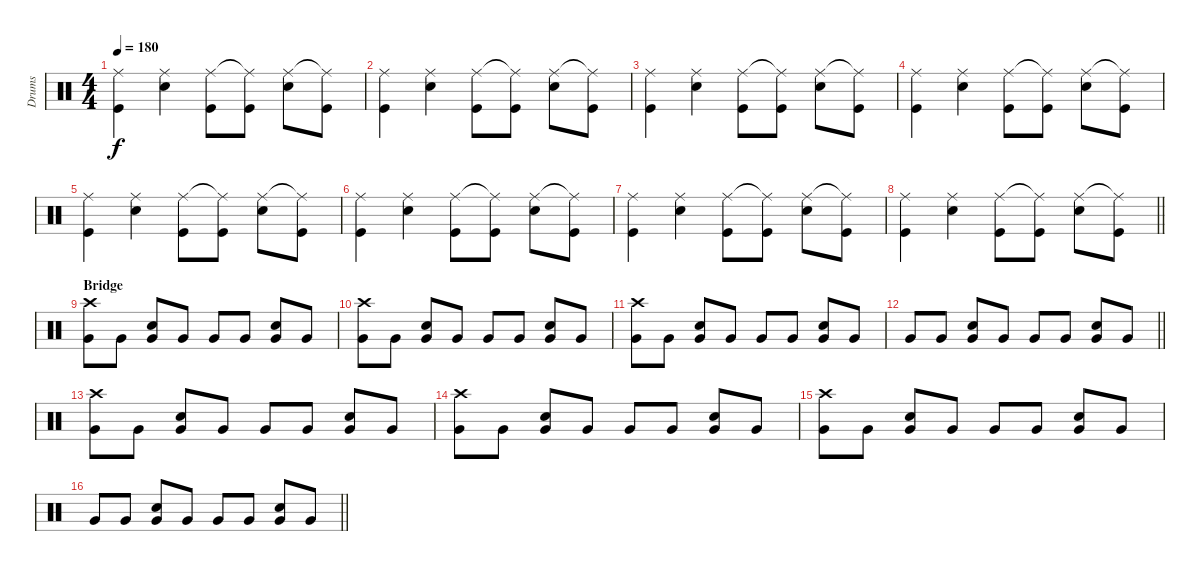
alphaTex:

\track ("Drums" "Drums") {instrument percussion}
\staff {score}
\articulation defaults
\ts (4 4)
\tempo 180
\clef neutral
\ks c
("Kick (hit)" "Ride (middle)").4{dy f} ("Snare (hit) 2" "Ride (middle)").4 ("Kick (hit)" "Ride (middle)").8 ("Kick (hit)" "Ride (middle)"{t}).8 ("Snare (hit) 2" "Ride (middle)").8 ("Kick (hit)" "Ride (middle)"{t}).8 |
("Kick (hit)" "Ride (middle)").4 ("Snare (hit) 2" "Ride (middle)").4 ("Kick (hit)" "Ride (middle)").8 ("Kick (hit)" "Ride (middle)"{t}).8 ("Snare (hit) 2" "Ride (middle)").8 ("Kick (hit)" "Ride (middle)"{t}).8 |
("Kick (hit)" "Ride (middle)").4 ("Snare (hit) 2" "Ride (middle)").4 ("Kick (hit)" "Ride (middle)").8 ("Kick (hit)" "Ride (middle)"{t}).8 ("Snare (hit) 2" "Ride (middle)").8 ("Kick (hit)" "Ride (middle)"{t}).8 |
("Kick (hit)" "Ride (middle)").4 ("Snare (hit) 2" "Ride (middle)").4 ("Kick (hit)" "Ride (middle)").8 ("Kick (hit)" "Ride (middle)"{t}).8 ("Snare (hit) 2" "Ride (middle)").8 ("Kick (hit)" "Ride (middle)"{t}).8 |
("Kick (hit)" "Ride (middle)").4 ("Snare (hit) 2" "Ride (middle)").4 ("Kick (hit)" "Ride (middle)").8 ("Kick (hit)" "Ride (middle)"{t}).8 ("Snare (hit) 2" "Ride (middle)").8 ("Kick (hit)" "Ride (middle)"{t}).8 |
("Kick (hit)" "Ride (middle)").4 ("Snare (hit) 2" "Ride (middle)").4 ("Kick (hit)" "Ride (middle)").8 ("Kick (hit)" "Ride (middle)"{t}).8 ("Snare (hit) 2" "Ride (middle)").8 ("Kick (hit)" "Ride (middle)"{t}).8 |
("Kick (hit)" "Ride (middle)").4 ("Snare (hit) 2" "Ride (middle)").4 ("Kick (hit)" "Ride (middle)").8 ("Kick (hit)" "Ride (middle)"{t}).8 ("Snare (hit) 2" "Ride (middle)").8 ("Kick (hit)" "Ride (middle)"{t}).8 |
\barLineRight lightlight
("Kick (hit)" "Ride (middle)").4 ("Snare (hit) 2" "Ride (middle)").4 ("Kick (hit)" "Ride (middle)").8 ("Kick (hit)" "Ride (middle)"{t}).8 ("Snare (hit) 2" "Ride (middle)").8 ("Kick (hit)" "Ride (middle)"{t}).8 |
\section ("" "Bridge")
("Very Low Tom (hit)" "Crash high (hit)").8 "Very Low Tom (hit)".8 ("Very Low Tom (hit)" "Snare (hit) 2").8 "Very Low Tom (hit)".8 "Very Low Tom (hit)".8 "Very Low Tom (hit)".8 ("Very Low Tom (hit)" "Snare (hit) 2").8 "Very Low Tom (hit)".8 |
("Very Low Tom (hit)" "Crash high (hit)").8 "Very Low Tom (hit)".8 ("Very Low Tom (hit)" "Snare (hit) 2").8 "Very Low Tom (hit)".8 "Very Low Tom (hit)".8 "Very Low Tom (hit)".8 ("Very Low Tom (hit)" "Snare (hit) 2").8 "Very Low Tom (hit)".8 |
("Very Low Tom (hit)" "Crash high (hit)").8 "Very Low Tom (hit)".8 ("Very Low Tom (hit)" "Snare (hit) 2").8 "Very Low Tom (hit)".8 "Very Low Tom (hit)".8 "Very Low Tom (hit)".8 ("Very Low Tom (hit)" "Snare (hit) 2").8 "Very Low Tom (hit)".8 |
\barLineRight lightlight "Very Low Tom (hit)".8 "Very Low Tom (hit)".8
("Very Low Tom (hit)" "Snare (hit) 2").8 "Very Low Tom (hit)".8 "Very Low Tom (hit)".8 "Very Low Tom (hit)".8 ("Very Low Tom (hit)" "Snare (hit) 2").8 "Very Low Tom (hit)".8 |
("Very Low Tom (hit)" "Crash high (hit)").8 "Very Low Tom (hit)".8 ("Very Low Tom (hit)" "Snare (hit) 2").8 "Very Low Tom (hit)".8 "Very Low Tom (hit)".8 "Very Low Tom (hit)".8 ("Very Low Tom (hit)" "Snare (hit) 2").8 "Very Low Tom (hit)".8 |
("Very Low Tom (hit)" "Crash high (hit)").8 "Very Low Tom (hit)".8 ("Very Low Tom (hit)" "Snare (hit) 2").8 "Very Low Tom (hit)".8 "Very Low Tom (hit)".8 "Very Low Tom (hit)".8 ("Very Low Tom (hit)" "Snare (hit) 2").8 "Very Low Tom (hit)".8 |
("Very Low Tom (hit)" "Crash high (hit)").8 "Very Low Tom (hit)".8 ("Very Low Tom (hit)" "Snare (hit) 2").8 "Very Low Tom (hit)".8 "Very Low Tom (hit)".8 "Very Low Tom (hit)".8 ("Very Low Tom (hit)" "Snare (hit) 2").8 "Very Low Tom (hit)".8 |
\barLineRight lightlight "Very Low Tom (hit)".8 "Very Low Tom (hit)".8
("Very Low Tom (hit)" "Snare (hit) 2").8 "Very Low Tom (hit)".8 "Very Low Tom (hit)".8 "Very Low Tom (hit)".8 ("Very Low Tom (hit)" "Snare (hit) 2").8 "Very Low Tom (hit)".8
